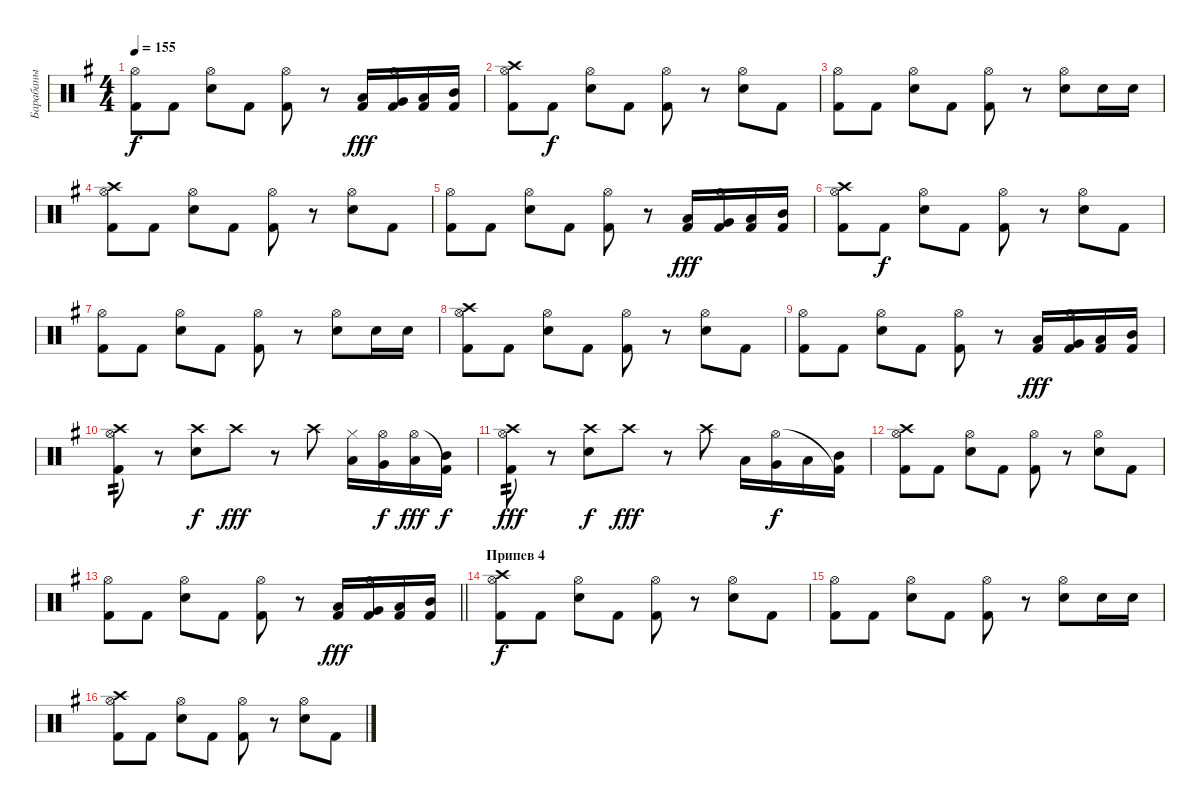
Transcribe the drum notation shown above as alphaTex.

\track ("Барабаны" "Барабаны") {instrument percussion}
\staff {score}
\articulation defaults
\ts (4 4)
\tempo 155
\clef neutral
\ks eminor
("Kick (hit) 2" "Hi-Hat (open)").8{dy f} "Kick (hit) 2".8 ("Electric Snare (hit)" "Hi-Hat (open)").8 "Kick (hit) 2".8 ("Kick (hit) 2" "Hi-Hat (open)").8 r.8 ("Low Floor Tom (hit)" "Kick (hit) 2").16{dy fff} ("Very Low Tom (hit)" "Hi-Hat (open)" "Kick (hit) 2").16 ("Low Tom (hit)" "Kick (hit) 2").16 ("Mid Tom (hit)" "Kick (hit) 2").16 |
("Kick (hit) 2" "Hi-Hat (open)" "Crash high (hit)").8 "Kick (hit) 2".8{dy f} ("Electric Snare (hit)" "Hi-Hat (open)").8 "Kick (hit) 2".8 ("Kick (hit) 2" "Hi-Hat (open)").8 r.8 ("Electric Snare (hit)" "Hi-Hat (open)").8 "Kick (hit) 2".8 |
("Kick (hit) 2" "Hi-Hat (open)").8 "Kick (hit) 2".8 ("Electric Snare (hit)" "Hi-Hat (open)").8 "Kick (hit) 2".8 ("Kick (hit) 2" "Hi-Hat (open)").8 r.8 ("Electric Snare (hit)" "Hi-Hat (open)").8 "Electric Snare (hit)".16 "Electric Snare (hit)".16 |
("Kick (hit) 2" "Hi-Hat (open)" "Crash high (hit)").8 "Kick (hit) 2".8 ("Electric Snare (hit)" "Hi-Hat (open)").8 "Kick (hit) 2".8 ("Kick (hit) 2" "Hi-Hat (open)").8 r.8 ("Electric Snare (hit)" "Hi-Hat (open)").8 "Kick (hit) 2".8 |
("Kick (hit) 2" "Hi-Hat (open)").8 "Kick (hit) 2".8 ("Electric Snare (hit)" "Hi-Hat (open)").8 "Kick (hit) 2".8 ("Kick (hit) 2" "Hi-Hat (open)").8 r.8 ("Low Floor Tom (hit)" "Kick (hit) 2").16{dy fff} ("Very Low Tom (hit)" "Hi-Hat (open)" "Kick (hit) 2").16 ("Low Tom (hit)" "Kick (hit) 2").16 ("Mid Tom (hit)" "Kick (hit) 2").16 |
("Kick (hit) 2" "Hi-Hat (open)" "Crash high (hit)").8 "Kick (hit) 2".8{dy f} ("Electric Snare (hit)" "Hi-Hat (open)").8 "Kick (hit) 2".8 ("Kick (hit) 2" "Hi-Hat (open)").8 r.8 ("Electric Snare (hit)" "Hi-Hat (open)").8 "Kick (hit) 2".8 |
("Kick (hit) 2" "Hi-Hat (open)").8 "Kick (hit) 2".8 ("Electric Snare (hit)" "Hi-Hat (open)").8 "Kick (hit) 2".8 ("Kick (hit) 2" "Hi-Hat (open)").8 r.8 ("Electric Snare (hit)" "Hi-Hat (open)").8 "Electric Snare (hit)".16 "Electric Snare (hit)".16 |
("Kick (hit) 2" "Hi-Hat (open)" "Crash high (hit)").8 "Kick (hit) 2".8 ("Electric Snare (hit)" "Hi-Hat (open)").8 "Kick (hit) 2".8 ("Kick (hit) 2" "Hi-Hat (open)").8 r.8 ("Electric Snare (hit)" "Hi-Hat (open)").8 "Kick (hit) 2".8 |
("Kick (hit) 2" "Hi-Hat (open)").8 "Kick (hit) 2".8 ("Electric Snare (hit)" "Hi-Hat (open)").8 "Kick (hit) 2".8 ("Kick (hit) 2" "Hi-Hat (open)").8 r.8 ("Low Floor Tom (hit)" "Kick (hit) 2").16{dy fff} ("Very Low Tom (hit)" "Hi-Hat (open)" "Kick (hit) 2").16 ("Low Tom (hit)" "Kick (hit) 2").16 ("Mid Tom (hit)" "Kick (hit) 2").16 |
("Hi-Hat (open)" "Kick (hit) 2" "Crash high (hit)").8{tp 2} r.8 ("Electric Snare (hit)" "Crash high (hit)").8{dy f} "Crash high (hit)".8{dy fff} r.8 "Crash high (hit)".8 ("Low Floor Tom (hit)" "Hi-Hat (closed)").16 ("Very Low Tom (hit)" "Hi-Hat (open)").16{dy f} ("Low Tom (hit)" "Hi-Hat (open)").16{dy fff} ("Mid Tom (hit)" "Kick (hit) 2"{t}).16{dy f} |
("Hi-Hat (open)" "Kick (hit) 2" "Crash high (hit)").8{tp 2 dy fff} r.8 ("Electric Snare (hit)" "Crash high (hit)").8{dy f} "Crash high (hit)".8{dy fff} r.8 "Crash high (hit)".8 "Low Floor Tom (hit)".16 ("Very Low Tom (hit)" "Hi-Hat (open)").16{dy f} "Low Tom (hit)".16 ("Mid Tom (hit)" "Kick (hit) 2"{t}).16 |
("Kick (hit) 2" "Hi-Hat (open)" "Crash high (hit)").8 "Kick (hit) 2".8 ("Electric Snare (hit)" "Hi-Hat (open)").8 "Kick (hit) 2".8 ("Kick (hit) 2" "Hi-Hat (open)").8 r.8 ("Electric Snare (hit)" "Hi-Hat (open)").8 "Kick (hit) 2".8 |
\barLineRight lightlight
("Kick (hit) 2" "Hi-Hat (open)").8 "Kick (hit) 2".8 ("Electric Snare (hit)" "Hi-Hat (open)").8 "Kick (hit) 2".8 ("Kick (hit) 2" "Hi-Hat (open)").8 r.8 ("Low Floor Tom (hit)" "Kick (hit) 2").16{dy fff} ("Very Low Tom (hit)" "Hi-Hat (open)" "Kick (hit) 2").16 ("Low Tom (hit)" "Kick (hit) 2").16 ("Mid Tom (hit)" "Kick (hit) 2").16 |
\section ("" "Припев 4")
("Kick (hit) 2" "Hi-Hat (open)" "Crash high (hit)").8{dy f} "Kick (hit) 2".8 ("Electric Snare (hit)" "Hi-Hat (open)").8 "Kick (hit) 2".8 ("Kick (hit) 2" "Hi-Hat (open)").8 r.8 ("Electric Snare (hit)" "Hi-Hat (open)").8 "Kick (hit) 2".8 |
("Kick (hit) 2" "Hi-Hat (open)").8 "Kick (hit) 2".8 ("Electric Snare (hit)" "Hi-Hat (open)").8 "Kick (hit) 2".8 ("Kick (hit) 2" "Hi-Hat (open)").8 r.8 ("Electric Snare (hit)" "Hi-Hat (open)").8 "Electric Snare (hit)".16 "Electric Snare (hit)".16 |
("Kick (hit) 2" "Hi-Hat (open)" "Crash high (hit)").8 "Kick (hit) 2".8 ("Electric Snare (hit)" "Hi-Hat (open)").8 "Kick (hit) 2".8 ("Kick (hit) 2" "Hi-Hat (open)").8 r.8 ("Electric Snare (hit)" "Hi-Hat (open)").8 "Kick (hit) 2".8
